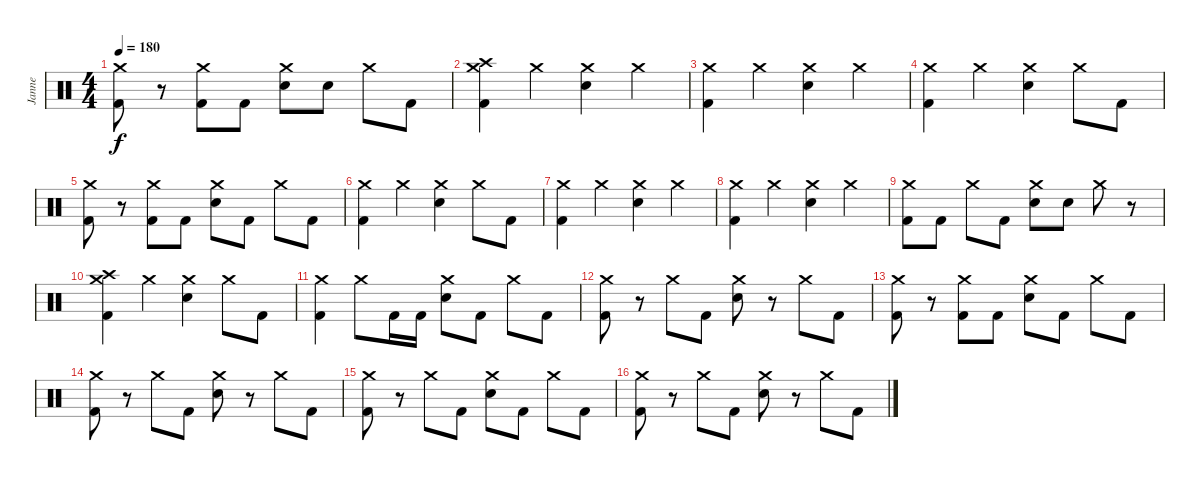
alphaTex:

\track ("Janne" "Janne") {instrument percussion}
\staff {score}
\articulation defaults
\ts (4 4)
\tempo 180
\clef neutral
\ks c
("Crash medium (hit)" "Kick (hit) 2").8{dy f} r.8 ("Crash medium (hit)" "Kick (hit) 2").8 "Kick (hit) 2".8 ("Crash medium (hit)" "Electric Snare (hit)").8 "Electric Snare (hit)".8 "Crash medium (hit)".8 "Kick (hit) 2".8 |
("Crash medium (hit)" "Crash high (hit)" "Kick (hit) 2").4 "Crash medium (hit)".4 ("Crash medium (hit)" "Electric Snare (hit)").4 "Crash medium (hit)".4 |
("Crash medium (hit)" "Kick (hit) 2").4 "Crash medium (hit)".4 ("Crash medium (hit)" "Electric Snare (hit)").4 "Crash medium (hit)".4 |
("Crash medium (hit)" "Kick (hit) 2").4 "Crash medium (hit)".4 ("Crash medium (hit)" "Electric Snare (hit)").4 "Crash medium (hit)".8 "Kick (hit) 2".8 |
("Crash medium (hit)" "Kick (hit) 2").8 r.8 ("Crash medium (hit)" "Kick (hit) 2").8 "Kick (hit) 2".8 ("Crash medium (hit)" "Electric Snare (hit)").8 "Kick (hit) 2".8 "Crash medium (hit)".8 "Kick (hit) 2".8 |
("Crash medium (hit)" "Kick (hit) 2").4 "Crash medium (hit)".4 ("Crash medium (hit)" "Electric Snare (hit)").4 "Crash medium (hit)".8 "Kick (hit) 2".8 |
("Crash medium (hit)" "Kick (hit) 2").4 "Crash medium (hit)".4 ("Crash medium (hit)" "Electric Snare (hit)").4 "Crash medium (hit)".4 |
("Crash medium (hit)" "Kick (hit) 2").4 "Crash medium (hit)".4 ("Crash medium (hit)" "Electric Snare (hit)").4 "Crash medium (hit)".4 |
("Crash medium (hit)" "Kick (hit) 2").8 "Kick (hit) 2".8 "Crash medium (hit)".8 "Kick (hit) 2".8 ("Crash medium (hit)" "Electric Snare (hit)").8 "Electric Snare (hit)".8 "Crash medium (hit)".8 r.8 |
("Crash medium (hit)" "Crash high (hit)" "Kick (hit) 2").4 "Crash medium (hit)".4 ("Crash medium (hit)" "Electric Snare (hit)").4 "Crash medium (hit)".8 "Kick (hit) 2".8 |
("Crash medium (hit)" "Kick (hit) 2").4 "Crash medium (hit)".8 "Kick (hit) 2".16 "Kick (hit) 2".16 ("Crash medium (hit)" "Electric Snare (hit)").8 "Kick (hit) 2".8 "Crash medium (hit)".8 "Kick (hit) 2".8 |
("Crash medium (hit)" "Kick (hit) 2").8 r.8 "Crash medium (hit)".8 "Kick (hit) 2".8 ("Crash medium (hit)" "Electric Snare (hit)").8 r.8 "Crash medium (hit)".8 "Kick (hit) 2".8 |
("Crash medium (hit)" "Kick (hit) 2").8 r.8 ("Crash medium (hit)" "Kick (hit) 2").8 "Kick (hit) 2".8 ("Crash medium (hit)" "Electric Snare (hit)").8 "Kick (hit) 2".8 "Crash medium (hit)".8 "Kick (hit) 2".8 |
("Crash medium (hit)" "Kick (hit) 2").8{volume 13} r.8 "Crash medium (hit)".8 "Kick (hit) 2".8 ("Crash medium (hit)" "Electric Snare (hit)").8 r.8 "Crash medium (hit)".8 "Kick (hit) 2".8 |
("Crash medium (hit)" "Kick (hit) 2").8 r.8 "Crash medium (hit)".8 "Kick (hit) 2".8 ("Crash medium (hit)" "Electric Snare (hit)").8 "Kick (hit) 2".8 "Crash medium (hit)".8 "Kick (hit) 2".8 |
("Crash medium (hit)" "Kick (hit) 2").8 r.8 "Crash medium (hit)".8 "Kick (hit) 2".8 ("Crash medium (hit)" "Electric Snare (hit)").8 r.8 "Crash medium (hit)".8 "Kick (hit) 2".8
